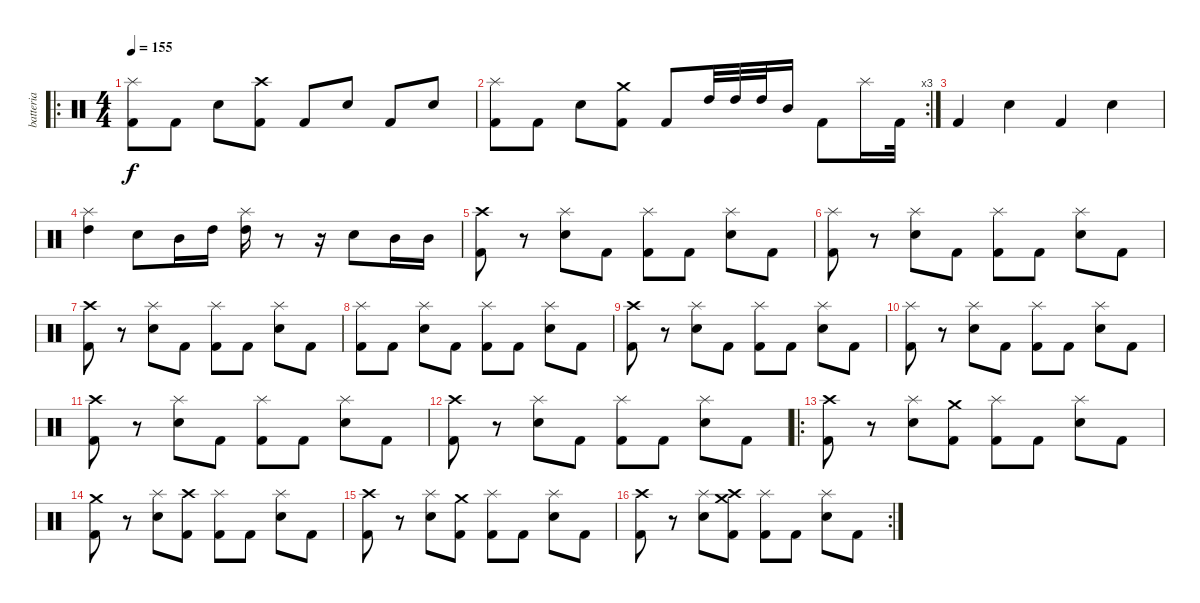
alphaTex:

\track ("batteria" "batteria") {instrument percussion}
\staff {score}
\articulation defaults
\ro
\ts (4 4)
\tempo 155
\clef neutral
\ks c
("Splash (hit)" "Kick (hit) 2").8{dy f} "Kick (hit) 2".8 "Electric Snare (hit)".8 ("Crash high (hit)" "Kick (hit) 2").8 "Kick (hit) 2".8 "Electric Snare (hit)".8 "Kick (hit) 2".8 "Electric Snare (hit)".8 |
\rc 3
("Splash (hit)" "Kick (hit) 2").8 "Kick (hit) 2".8 "Electric Snare (hit)".8 ("Crash medium (hit)" "Kick (hit) 2").8 "Kick (hit) 2".8 "High Tom (hit)".32 "High Tom (hit)".32 "High Tom (hit)".32 "Mid Tom (hit)".16 "Kick (hit) 2".8 "Splash (hit)".16 "Kick (hit) 2".32 |
"Kick (hit) 2".4 "Electric Snare (hit)".4 "Kick (hit) 2".4 "Electric Snare (hit)".4 |
("Splash (hit)" "High Tom (hit)").4 "Electric Snare (hit)".8 "Mid Tom (hit)".16 "High Tom (hit)".16 ("Splash (hit)" "High Tom (hit)").16 r.8 r.16 "Electric Snare (hit)".8 "Mid Tom (hit)".16 "Mid Tom (hit)".16 |
("Crash high (hit)" "Kick (hit) 2").8 r.8 ("Splash (hit)" "Electric Snare (hit)").8 "Kick (hit) 2".8 ("Splash (hit)" "Kick (hit) 2").8 "Kick (hit) 2".8 ("Splash (hit)" "Electric Snare (hit)").8 "Kick (hit) 2".8 |
("Splash (hit)" "Kick (hit) 2").8 r.8 ("Splash (hit)" "Electric Snare (hit)").8 "Kick (hit) 2".8 ("Splash (hit)" "Kick (hit) 2").8 "Kick (hit) 2".8 ("Splash (hit)" "Electric Snare (hit)").8 "Kick (hit) 2".8 |
("Crash high (hit)" "Kick (hit) 2").8 r.8 ("Splash (hit)" "Electric Snare (hit)").8 "Kick (hit) 2".8 ("Splash (hit)" "Kick (hit) 2").8 "Kick (hit) 2".8 ("Splash (hit)" "Electric Snare (hit)").8 "Kick (hit) 2".8 |
("Splash (hit)" "Kick (hit) 2").8 "Kick (hit) 2".8 ("Splash (hit)" "Electric Snare (hit)").8 "Kick (hit) 2".8 ("Splash (hit)" "Kick (hit) 2").8 "Kick (hit) 2".8 ("Splash (hit)" "Electric Snare (hit)").8 "Kick (hit) 2".8 |
("Crash high (hit)" "Kick (hit) 2").8 r.8 ("Splash (hit)" "Electric Snare (hit)").8 "Kick (hit) 2".8 ("Splash (hit)" "Kick (hit) 2").8 "Kick (hit) 2".8 ("Splash (hit)" "Electric Snare (hit)").8 "Kick (hit) 2".8 |
("Splash (hit)" "Kick (hit) 2").8 r.8 ("Splash (hit)" "Electric Snare (hit)").8 "Kick (hit) 2".8 ("Splash (hit)" "Kick (hit) 2").8 "Kick (hit) 2".8 ("Splash (hit)" "Electric Snare (hit)").8 "Kick (hit) 2".8 |
("Crash high (hit)" "Kick (hit) 2").8 r.8 ("Splash (hit)" "Electric Snare (hit)").8 "Kick (hit) 2".8 ("Splash (hit)" "Kick (hit) 2").8 "Kick (hit) 2".8 ("Splash (hit)" "Electric Snare (hit)").8 "Kick (hit) 2".8 |
("Crash high (hit)" "Kick (hit) 2").8 r.8 ("Splash (hit)" "Electric Snare (hit)").8 "Kick (hit) 2".8 ("Splash (hit)" "Kick (hit) 2").8 "Kick (hit) 2".8 ("Splash (hit)" "Electric Snare (hit)").8 "Kick (hit) 2".8 |
\ro
("Crash high (hit)" "Kick (hit) 2").8 r.8 ("Splash (hit)" "Electric Snare (hit)").8 ("Crash medium (hit)" "Kick (hit) 2").8 ("Splash (hit)" "Kick (hit) 2").8 "Kick (hit) 2".8 ("Splash (hit)" "Electric Snare (hit)").8 "Kick (hit) 2".8 |
("Crash medium (hit)" "Kick (hit) 2").8 r.8 ("Splash (hit)" "Electric Snare (hit)").8 ("Crash high (hit)" "Kick (hit) 2").8 ("Splash (hit)" "Kick (hit) 2").8 "Kick (hit) 2".8 ("Splash (hit)" "Electric Snare (hit)").8 "Kick (hit) 2".8 |
("Crash high (hit)" "Kick (hit) 2").8 r.8 ("Splash (hit)" "Electric Snare (hit)").8 ("Crash medium (hit)" "Kick (hit) 2").8 ("Splash (hit)" "Kick (hit) 2").8 "Kick (hit) 2".8 ("Splash (hit)" "Electric Snare (hit)").8 "Kick (hit) 2".8 |
\rc 2
("Crash high (hit)" "Kick (hit) 2").8 r.8 ("Splash (hit)" "Electric Snare (hit)").8 ("Crash medium (hit)" "Crash high (hit)" "Kick (hit) 2").8 ("Splash (hit)" "Kick (hit) 2").8 "Kick (hit) 2".8 ("Splash (hit)" "Electric Snare (hit)").8 "Kick (hit) 2".8
